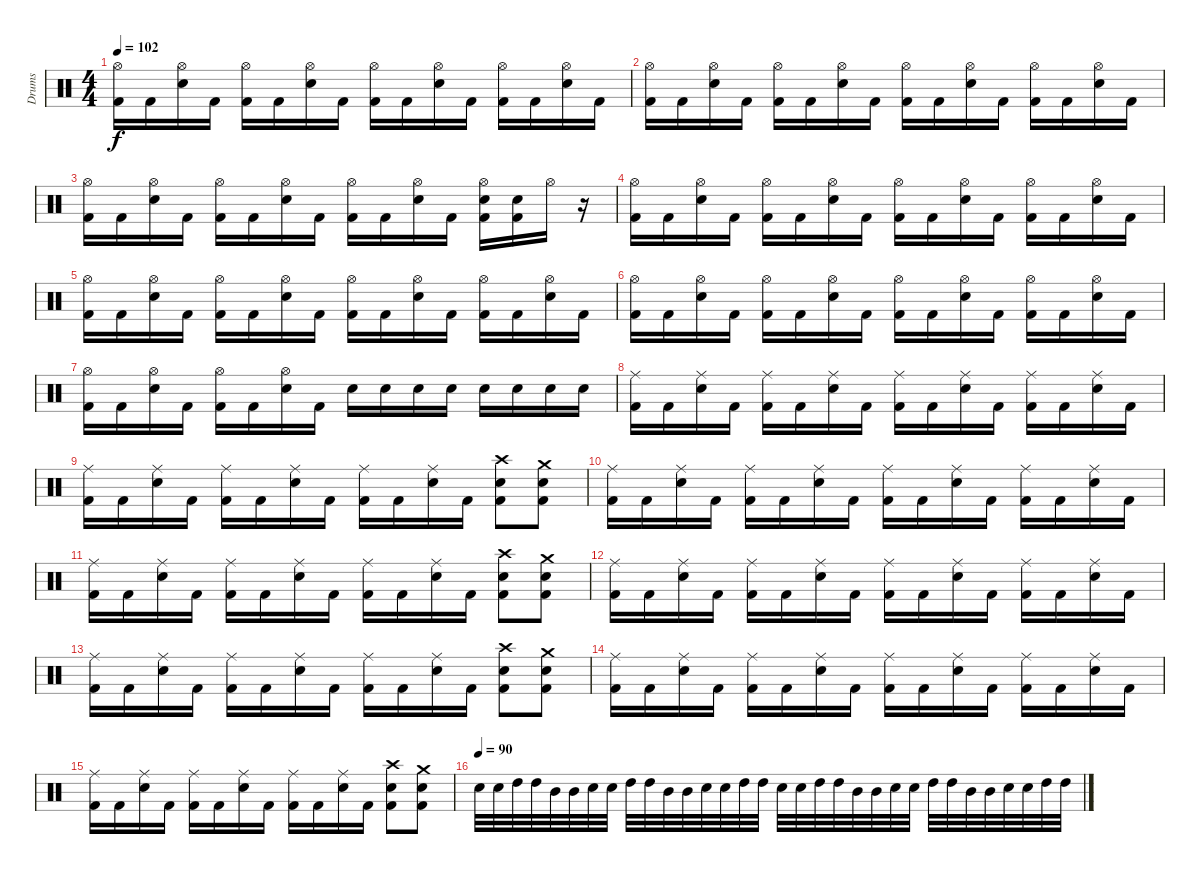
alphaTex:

\track ("Drums" "Drums") {instrument percussion}
\staff {score}
\articulation defaults
\ts (4 4)
\tempo 102
\clef neutral
\ks c
("Hi-Hat (open)" "Kick (hit) 2").16{dy f} "Kick (hit) 2".16 ("Hi-Hat (open)" "Snare (hit) 2").16 "Kick (hit) 2".16 ("Hi-Hat (open)" "Kick (hit) 2").16 "Kick (hit) 2".16 ("Hi-Hat (open)" "Snare (hit) 2").16 "Kick (hit) 2".16 ("Hi-Hat (open)" "Kick (hit) 2").16 "Kick (hit) 2".16 ("Hi-Hat (open)" "Snare (hit) 2").16 "Kick (hit) 2".16 ("Hi-Hat (open)" "Kick (hit) 2").16 "Kick (hit) 2".16 ("Hi-Hat (open)" "Snare (hit) 2").16 "Kick (hit) 2".16 |
("Hi-Hat (open)" "Kick (hit) 2").16 "Kick (hit) 2".16 ("Hi-Hat (open)" "Snare (hit) 2").16 "Kick (hit) 2".16 ("Hi-Hat (open)" "Kick (hit) 2").16 "Kick (hit) 2".16 ("Hi-Hat (open)" "Snare (hit) 2").16 "Kick (hit) 2".16 ("Hi-Hat (open)" "Kick (hit) 2").16 "Kick (hit) 2".16 ("Hi-Hat (open)" "Snare (hit) 2").16 "Kick (hit) 2".16 ("Hi-Hat (open)" "Kick (hit) 2").16 "Kick (hit) 2".16 ("Hi-Hat (open)" "Snare (hit) 2").16 "Kick (hit) 2".16 |
("Hi-Hat (open)" "Kick (hit) 2").16 "Kick (hit) 2".16 ("Hi-Hat (open)" "Snare (hit) 2").16 "Kick (hit) 2".16 ("Hi-Hat (open)" "Kick (hit) 2").16 "Kick (hit) 2".16 ("Hi-Hat (open)" "Snare (hit) 2").16 "Kick (hit) 2".16 ("Hi-Hat (open)" "Kick (hit) 2").16 "Kick (hit) 2".16 ("Hi-Hat (open)" "Snare (hit) 2").16 "Kick (hit) 2".16 ("Hi-Hat (open)" "Snare (hit) 2" "Kick (hit) 2").16 ("Snare (hit) 2" "Kick (hit) 2").16 "Hi-Hat (open)".16 r.16 |
("Hi-Hat (open)" "Kick (hit) 2").16 "Kick (hit) 2".16 ("Hi-Hat (open)" "Snare (hit) 2").16 "Kick (hit) 2".16 ("Hi-Hat (open)" "Kick (hit) 2").16 "Kick (hit) 2".16 ("Hi-Hat (open)" "Snare (hit) 2").16 "Kick (hit) 2".16 ("Hi-Hat (open)" "Kick (hit) 2").16 "Kick (hit) 2".16 ("Hi-Hat (open)" "Snare (hit) 2").16 "Kick (hit) 2".16 ("Hi-Hat (open)" "Kick (hit) 2").16 "Kick (hit) 2".16 ("Hi-Hat (open)" "Snare (hit) 2").16 "Kick (hit) 2".16 |
("Hi-Hat (open)" "Kick (hit) 2").16 "Kick (hit) 2".16 ("Hi-Hat (open)" "Snare (hit) 2").16 "Kick (hit) 2".16 ("Hi-Hat (open)" "Kick (hit) 2").16 "Kick (hit) 2".16 ("Hi-Hat (open)" "Snare (hit) 2").16 "Kick (hit) 2".16 ("Hi-Hat (open)" "Kick (hit) 2").16 "Kick (hit) 2".16 ("Hi-Hat (open)" "Snare (hit) 2").16 "Kick (hit) 2".16 ("Hi-Hat (open)" "Kick (hit) 2").16 "Kick (hit) 2".16 ("Hi-Hat (open)" "Snare (hit) 2").16 "Kick (hit) 2".16 |
("Hi-Hat (open)" "Kick (hit) 2").16 "Kick (hit) 2".16 ("Hi-Hat (open)" "Snare (hit) 2").16 "Kick (hit) 2".16 ("Hi-Hat (open)" "Kick (hit) 2").16 "Kick (hit) 2".16 ("Hi-Hat (open)" "Snare (hit) 2").16 "Kick (hit) 2".16 ("Hi-Hat (open)" "Kick (hit) 2").16 "Kick (hit) 2".16 ("Hi-Hat (open)" "Snare (hit) 2").16 "Kick (hit) 2".16 ("Hi-Hat (open)" "Kick (hit) 2").16 "Kick (hit) 2".16 ("Hi-Hat (open)" "Snare (hit) 2").16 "Kick (hit) 2".16 |
("Hi-Hat (open)" "Kick (hit) 2").16 "Kick (hit) 2".16 ("Hi-Hat (open)" "Snare (hit) 2").16 "Kick (hit) 2".16 ("Hi-Hat (open)" "Kick (hit) 2").16 "Kick (hit) 2".16 ("Hi-Hat (open)" "Snare (hit) 2").16 "Kick (hit) 2".16 "Snare (hit) 2".16 "Snare (hit) 2".16 "Snare (hit) 2".16 "Snare (hit) 2".16 "Snare (hit) 2".16 "Snare (hit) 2".16 "Snare (hit) 2".16 "Snare (hit) 2".16 |
("Ride (middle)" "Kick (hit) 2").16 "Kick (hit) 2".16 ("Ride (middle)" "Snare (hit) 2").16 "Kick (hit) 2".16 ("Ride (middle)" "Kick (hit) 2").16 "Kick (hit) 2".16 ("Ride (middle)" "Snare (hit) 2").16 "Kick (hit) 2".16 ("Ride (middle)" "Kick (hit) 2").16 "Kick (hit) 2".16 ("Ride (middle)" "Snare (hit) 2").16 "Kick (hit) 2".16 ("Ride (middle)" "Kick (hit) 2").16 "Kick (hit) 2".16 ("Ride (middle)" "Snare (hit) 2").16 "Kick (hit) 2".16 |
("Ride (middle)" "Kick (hit) 2").16 "Kick (hit) 2".16 ("Ride (middle)" "Snare (hit) 2").16 "Kick (hit) 2".16 ("Ride (middle)" "Kick (hit) 2").16 "Kick (hit) 2".16 ("Ride (middle)" "Snare (hit) 2").16 "Kick (hit) 2".16 ("Ride (middle)" "Kick (hit) 2").16 "Kick (hit) 2".16 ("Ride (middle)" "Snare (hit) 2").16 "Kick (hit) 2".16 ("Crash high (hit)" "Snare (hit) 2" "Kick (hit) 2").8 ("Crash medium (hit)" "Snare (hit) 2" "Kick (hit) 2").8 |
("Ride (middle)" "Kick (hit) 2").16 "Kick (hit) 2".16 ("Ride (middle)" "Snare (hit) 2").16 "Kick (hit) 2".16 ("Ride (middle)" "Kick (hit) 2").16 "Kick (hit) 2".16 ("Ride (middle)" "Snare (hit) 2").16 "Kick (hit) 2".16 ("Ride (middle)" "Kick (hit) 2").16 "Kick (hit) 2".16 ("Ride (middle)" "Snare (hit) 2").16 "Kick (hit) 2".16 ("Ride (middle)" "Kick (hit) 2").16 "Kick (hit) 2".16 ("Ride (middle)" "Snare (hit) 2").16 "Kick (hit) 2".16 |
("Ride (middle)" "Kick (hit) 2").16 "Kick (hit) 2".16 ("Ride (middle)" "Snare (hit) 2").16 "Kick (hit) 2".16 ("Ride (middle)" "Kick (hit) 2").16 "Kick (hit) 2".16 ("Ride (middle)" "Snare (hit) 2").16 "Kick (hit) 2".16 ("Ride (middle)" "Kick (hit) 2").16 "Kick (hit) 2".16 ("Ride (middle)" "Snare (hit) 2").16 "Kick (hit) 2".16 ("Crash high (hit)" "Snare (hit) 2" "Kick (hit) 2").8 ("Crash medium (hit)" "Snare (hit) 2" "Kick (hit) 2").8 |
("Ride (middle)" "Kick (hit) 2").16 "Kick (hit) 2".16 ("Ride (middle)" "Snare (hit) 2").16 "Kick (hit) 2".16 ("Ride (middle)" "Kick (hit) 2").16 "Kick (hit) 2".16 ("Ride (middle)" "Snare (hit) 2").16 "Kick (hit) 2".16 ("Ride (middle)" "Kick (hit) 2").16 "Kick (hit) 2".16 ("Ride (middle)" "Snare (hit) 2").16 "Kick (hit) 2".16 ("Ride (middle)" "Kick (hit) 2").16 "Kick (hit) 2".16 ("Ride (middle)" "Snare (hit) 2").16 "Kick (hit) 2".16 |
("Ride (middle)" "Kick (hit) 2").16 "Kick (hit) 2".16 ("Ride (middle)" "Snare (hit) 2").16 "Kick (hit) 2".16 ("Ride (middle)" "Kick (hit) 2").16 "Kick (hit) 2".16 ("Ride (middle)" "Snare (hit) 2").16 "Kick (hit) 2".16 ("Ride (middle)" "Kick (hit) 2").16 "Kick (hit) 2".16 ("Ride (middle)" "Snare (hit) 2").16 "Kick (hit) 2".16 ("Crash high (hit)" "Snare (hit) 2" "Kick (hit) 2").8 ("Crash medium (hit)" "Snare (hit) 2" "Kick (hit) 2").8 |
("Ride (middle)" "Kick (hit) 2").16 "Kick (hit) 2".16 ("Ride (middle)" "Snare (hit) 2").16 "Kick (hit) 2".16 ("Ride (middle)" "Kick (hit) 2").16 "Kick (hit) 2".16 ("Ride (middle)" "Snare (hit) 2").16 "Kick (hit) 2".16 ("Ride (middle)" "Kick (hit) 2").16 "Kick (hit) 2".16 ("Ride (middle)" "Snare (hit) 2").16 "Kick (hit) 2".16 ("Ride (middle)" "Kick (hit) 2").16 "Kick (hit) 2".16 ("Ride (middle)" "Snare (hit) 2").16 "Kick (hit) 2".16 |
("Ride (middle)" "Kick (hit) 2").16 "Kick (hit) 2".16 ("Ride (middle)" "Snare (hit) 2").16 "Kick (hit) 2".16 ("Ride (middle)" "Kick (hit) 2").16 "Kick (hit) 2".16 ("Ride (middle)" "Snare (hit) 2").16 "Kick (hit) 2".16 ("Ride (middle)" "Kick (hit) 2").16 "Kick (hit) 2".16 ("Ride (middle)" "Snare (hit) 2").16 "Kick (hit) 2".16 ("Crash high (hit)" "Snare (hit) 2" "Kick (hit) 2").8 ("Crash medium (hit)" "Snare (hit) 2" "Kick (hit) 2").8 |
\tempo (90)
"Snare (hit) 2".32 "Snare (hit) 2".32 "High Tom (hit)".32 "High Tom (hit)".32 "Mid Tom (hit)".32 "Mid Tom (hit)".32 "Snare (hit) 2".32 "Snare (hit) 2".32 "High Tom (hit)".32 "High Tom (hit)".32 "Mid Tom (hit)".32 "Mid Tom (hit)".32 "Snare (hit) 2".32 "Snare (hit) 2".32 "High Tom (hit)".32 "High Tom (hit)".32 "Snare (hit) 2".32 "Snare (hit) 2".32 "High Tom (hit)".32 "High Tom (hit)".32 "Mid Tom (hit)".32 "Mid Tom (hit)".32 "Snare (hit) 2".32 "Snare (hit) 2".32 "High Tom (hit)".32 "High Tom (hit)".32 "Mid Tom (hit)".32 "Mid Tom (hit)".32 "Snare (hit) 2".32 "Snare (hit) 2".32 "High Tom (hit)".32 "High Tom (hit)".32
